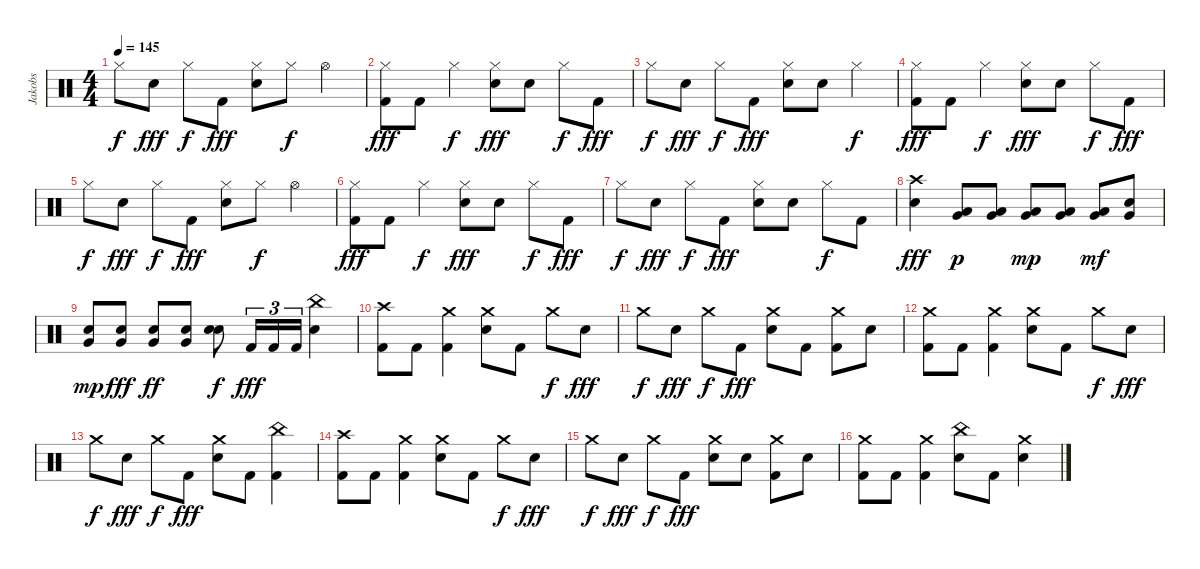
\track ("Jakobs" "Jakobs") {instrument percussion}
\staff {score}
\articulation defaults
\ts (4 4)
\tempo 145
\clef neutral
\ks c "Hi-Hat (closed)".8{dy f} "Snare (hit) 2".8{dy fff} "Hi-Hat (closed)".8{dy f} "Kick (hit) 2".8{dy fff}
("Hi-Hat (closed)" "Snare (hit) 2").8 "Hi-Hat (closed)".8{dy f} "Hi-Hat (open)".4 |
("Hi-Hat (closed)" "Kick (hit) 2").8{dy fff} "Kick (hit) 2".8 "Hi-Hat (closed)".4{dy f} ("Hi-Hat (closed)" "Snare (hit) 2").8{dy fff} "Snare (hit) 2".8 "Hi-Hat (closed)".8{dy f} "Kick (hit) 2".8{dy fff} |
"Hi-Hat (closed)".8{dy f} "Snare (hit) 2".8{dy fff} "Hi-Hat (closed)".8{dy f} "Kick (hit) 2".8{dy fff} ("Hi-Hat (closed)" "Snare (hit) 2").8 "Snare (hit) 2".8 "Hi-Hat (closed)".4{dy f} |
("Hi-Hat (closed)" "Kick (hit) 2").8{dy fff} "Kick (hit) 2".8 "Hi-Hat (closed)".4{dy f} ("Hi-Hat (closed)" "Snare (hit) 2").8{dy fff} "Snare (hit) 2".8 "Hi-Hat (closed)".8{dy f} "Kick (hit) 2".8{dy fff} |
"Hi-Hat (closed)".8{dy f} "Snare (hit) 2".8{dy fff} "Hi-Hat (closed)".8{dy f} "Kick (hit) 2".8{dy fff} ("Hi-Hat (closed)" "Snare (hit) 2").8 "Hi-Hat (closed)".8{dy f} "Hi-Hat (open)".4 |
("Hi-Hat (closed)" "Kick (hit) 2").8{dy fff} "Kick (hit) 2".8 "Hi-Hat (closed)".4{dy f} ("Hi-Hat (closed)" "Snare (hit) 2").8{dy fff} "Snare (hit) 2".8 "Hi-Hat (closed)".8{dy f} "Kick (hit) 2".8{dy fff} |
"Hi-Hat (closed)".8{dy f} "Snare (hit) 2".8{dy fff} "Hi-Hat (closed)".8{dy f} "Kick (hit) 2".8{dy fff} ("Hi-Hat (closed)" "Snare (hit) 2").8 "Snare (hit) 2".8 "Hi-Hat (closed)".8{dy f} "Kick (hit) 2".8 |
("Crash high (hit)" "Snare (hit) 2").4{dy fff} ("Low Tom (hit)" "Very Low Tom (hit)").8{dy p} ("Low Tom (hit)" "Very Low Tom (hit)").8 ("Low Tom (hit)" "Very Low Tom (hit)").8{dy mp} ("Low Tom (hit)" "Very Low Tom (hit)").8 ("Low Tom (hit)" "Very Low Tom (hit)").8{dy mf} ("Snare (hit) 2" "Very Low Tom (hit)").8 |
("Snare (hit) 2" "Very Low Tom (hit)").8{dy mp} ("Snare (hit) 2" "Very Low Tom (hit)").8{dy fff} ("Snare (hit) 2" "Very Low Tom (hit)").8{dy ff} ("Snare (hit) 2" "Very Low Tom (hit)").8 ("Snare (hit) 2" "Snare (hit) 2").8{dy f} "Kick (hit) 2".16{tu (3 2) dy fff} "Kick (hit) 2".16{tu (3 2)} "Kick (hit) 2".16{tu (3 2)} ("China (hit)" "Snare (hit) 2").4 |
("Crash high (hit)" "Kick (hit) 2").8 "Kick (hit) 2".8 ("Crash medium (hit)" "Kick (hit) 2").4 ("Crash medium (hit)" "Snare (hit) 2").8 "Kick (hit) 2".8 "Crash medium (hit)".8{dy f} "Snare (hit) 2".8{dy fff} |
"Crash medium (hit)".8{dy f} "Snare (hit) 2".8{dy fff} "Crash medium (hit)".8{dy f} "Kick (hit) 2".8{dy fff} ("Crash medium (hit)" "Snare (hit) 2").8 "Kick (hit) 2".8 ("Crash medium (hit)" "Kick (hit) 2").8 "Snare (hit) 2".8 |
("Crash medium (hit)" "Kick (hit) 2").8 "Kick (hit) 2".8 ("Crash medium (hit)" "Kick (hit) 2").4 ("Crash medium (hit)" "Snare (hit) 2").8 "Kick (hit) 2".8 "Crash medium (hit)".8{dy f} "Snare (hit) 2".8{dy fff} |
"Crash medium (hit)".8{dy f} "Snare (hit) 2".8{dy fff} "Crash medium (hit)".8{dy f} "Kick (hit) 2".8{dy fff} ("Crash medium (hit)" "Snare (hit) 2").8 "Kick (hit) 2".8 ("China (hit)" "Kick (hit) 2").4 |
("Crash high (hit)" "Kick (hit) 2").8 "Kick (hit) 2".8 ("Crash medium (hit)" "Kick (hit) 2").4 ("Crash medium (hit)" "Snare (hit) 2").8 "Kick (hit) 2".8 "Crash medium (hit)".8{dy f} "Snare (hit) 2".8{dy fff} |
"Crash medium (hit)".8{dy f} "Snare (hit) 2".8{dy fff} "Crash medium (hit)".8{dy f} "Kick (hit) 2".8{dy fff} ("Crash medium (hit)" "Snare (hit) 2").8 "Snare (hit) 2".8 ("Crash medium (hit)" "Kick (hit) 2").8 "Snare (hit) 2".8 |
("Crash medium (hit)" "Kick (hit) 2").8 "Kick (hit) 2".8 ("Crash medium (hit)" "Kick (hit) 2").4 ("China (hit)" "Snare (hit) 2").8 "Kick (hit) 2".8 ("Crash medium (hit)" "Snare (hit) 2").4
